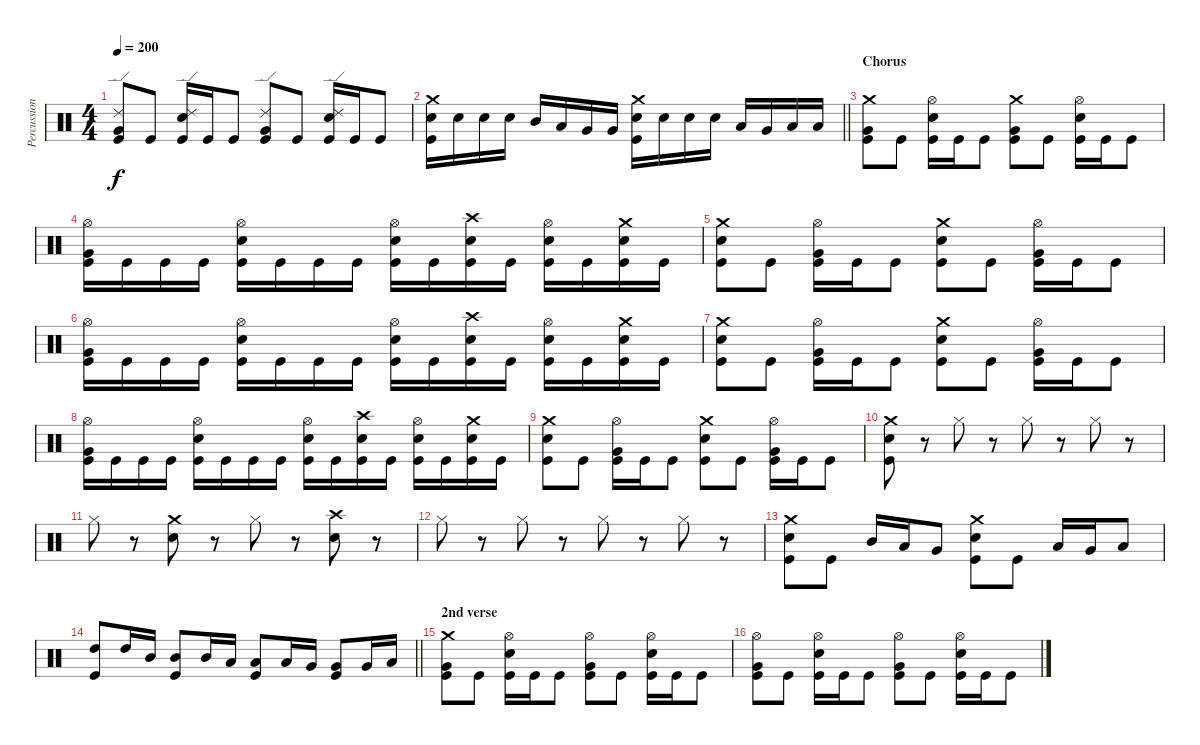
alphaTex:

\track ("Percussion" "Percussion") {instrument percussion}
\staff {score}
\articulation defaults
\ts (4 4)
\tempo 200
\clef neutral
\ks c
("Kick (hit)" "Very Low Tom (hit)" "Ride (edge) 2").8{dy f} "Kick (hit)".8 ("Kick (hit)" "Snare (hit) 2" "Ride (edge) 2").16 "Kick (hit)".16 "Kick (hit)".8 ("Kick (hit)" "Very Low Tom (hit)" "Ride (edge) 2").8 "Kick (hit)".8 ("Kick (hit)" "Snare (hit) 2" "Ride (edge) 2").16 "Kick (hit)".16 "Kick (hit)".8 |
\barLineRight lightlight
("Snare (hit) 2" "Crash medium (hit)" "Kick (hit)").16 "Snare (hit) 2".16 "Snare (hit) 2".16 "Snare (hit) 2".16 "Mid Tom (hit)".16 "Low Tom (hit)".16 "Very Low Tom (hit)".16 "Very Low Tom (hit)".16 ("Snare (hit) 2" "Crash medium (hit)" "Kick (hit)").16 "Snare (hit) 2".16 "Snare (hit) 2".16 "Snare (hit) 2".16 "Low Tom (hit)".16 "Very Low Tom (hit)".16 "Low Floor Tom (hit)".16 "Low Floor Tom (hit)".16 |
\section ("" "Chorus")
("Kick (hit)" "Very Low Tom (hit)" "Crash medium (hit)").8 "Kick (hit)".8 ("Kick (hit)" "Snare (hit) 2" "Hi-Hat (open)").16 "Kick (hit)".16 "Kick (hit)".8 ("Kick (hit)" "Very Low Tom (hit)" "Crash medium (hit)").8 "Kick (hit)".8 ("Kick (hit)" "Snare (hit) 2" "Hi-Hat (open)").16 "Kick (hit)".16 "Kick (hit)".8 |
("Kick (hit)" "Very Low Tom (hit)" "Hi-Hat (open)").16 "Kick (hit)".16 "Kick (hit)".16 "Kick (hit)".16 ("Kick (hit)" "Snare (hit) 2" "Hi-Hat (open)").16 "Kick (hit)".16 "Kick (hit)".16 "Kick (hit)".16 ("Kick (hit)" "Snare (hit) 2" "Hi-Hat (open)").16 "Kick (hit)".16 ("Kick (hit)" "Snare (hit) 2" "Crash high (hit)").16 "Kick (hit)".16 ("Kick (hit)" "Snare (hit) 2" "Hi-Hat (open)").16 "Kick (hit)".16 ("Kick (hit)" "Snare (hit) 2" "Crash medium (hit)").16 "Kick (hit)".16 |
("Kick (hit)" "Snare (hit) 2" "Crash medium (hit)").8 "Kick (hit)".8 ("Kick (hit)" "Very Low Tom (hit)" "Hi-Hat (open)").16 "Kick (hit)".16 "Kick (hit)".8 ("Kick (hit)" "Snare (hit) 2" "Crash medium (hit)").8 "Kick (hit)".8 ("Kick (hit)" "Very Low Tom (hit)" "Hi-Hat (open)").16 "Kick (hit)".16 "Kick (hit)".8 |
("Kick (hit)" "Very Low Tom (hit)" "Hi-Hat (open)").16 "Kick (hit)".16 "Kick (hit)".16 "Kick (hit)".16 ("Kick (hit)" "Snare (hit) 2" "Hi-Hat (open)").16 "Kick (hit)".16 "Kick (hit)".16 "Kick (hit)".16 ("Kick (hit)" "Snare (hit) 2" "Hi-Hat (open)").16 "Kick (hit)".16 ("Kick (hit)" "Snare (hit) 2" "Crash high (hit)").16 "Kick (hit)".16 ("Kick (hit)" "Snare (hit) 2" "Hi-Hat (open)").16 "Kick (hit)".16 ("Kick (hit)" "Snare (hit) 2" "Crash medium (hit)").16 "Kick (hit)".16 |
("Kick (hit)" "Snare (hit) 2" "Crash medium (hit)").8 "Kick (hit)".8 ("Kick (hit)" "Very Low Tom (hit)" "Hi-Hat (open)").16 "Kick (hit)".16 "Kick (hit)".8 ("Kick (hit)" "Snare (hit) 2" "Crash medium (hit)").8 "Kick (hit)".8 ("Kick (hit)" "Very Low Tom (hit)" "Hi-Hat (open)").16 "Kick (hit)".16 "Kick (hit)".8 |
("Kick (hit)" "Very Low Tom (hit)" "Hi-Hat (open)").16 "Kick (hit)".16 "Kick (hit)".16 "Kick (hit)".16 ("Kick (hit)" "Snare (hit) 2" "Hi-Hat (open)").16 "Kick (hit)".16 "Kick (hit)".16 "Kick (hit)".16 ("Kick (hit)" "Snare (hit) 2" "Hi-Hat (open)").16 "Kick (hit)".16 ("Kick (hit)" "Snare (hit) 2" "Crash high (hit)").16 "Kick (hit)".16 ("Kick (hit)" "Snare (hit) 2" "Hi-Hat (open)").16 "Kick (hit)".16 ("Kick (hit)" "Snare (hit) 2" "Crash medium (hit)").16 "Kick (hit)".16 |
("Kick (hit)" "Snare (hit) 2" "Crash medium (hit)").8 "Kick (hit)".8 ("Kick (hit)" "Very Low Tom (hit)" "Hi-Hat (open)").16 "Kick (hit)".16 "Kick (hit)".8 ("Kick (hit)" "Snare (hit) 2" "Crash medium (hit)").8 "Kick (hit)".8 ("Kick (hit)" "Very Low Tom (hit)" "Hi-Hat (open)").16 "Kick (hit)".16 "Kick (hit)".8 |
("Snare (hit) 2" "Crash medium (hit)" "Kick (hit)").8 r.8 "Hi-Hat (closed)".8 r.8 "Hi-Hat (closed)".8 r.8 "Hi-Hat (closed)".8 r.8 |
"Hi-Hat (closed)".8 r.8 ("Snare (hit) 2" "Crash medium (hit)").8 r.8 "Hi-Hat (closed)".8 r.8 ("Snare (hit) 2" "Crash high (hit)").8 r.8 |
"Hi-Hat (closed)".8 r.8 "Hi-Hat (closed)".8 r.8 "Hi-Hat (closed)".8 r.8 "Hi-Hat (closed)".8 r.8 |
("Snare (hit) 2" "Crash medium (hit)" "Kick (hit)").8 "Kick (hit)".8 "Mid Tom (hit)".16 "Low Tom (hit)".16 "Very Low Tom (hit)".8 ("Snare (hit) 2" "Crash medium (hit)" "Kick (hit)").8 "Kick (hit)".8 "Low Tom (hit)".16 "Very Low Tom (hit)".16 "Low Floor Tom (hit)".8 |
\barLineRight lightlight
("High Tom (hit)" "Kick (hit)").8{balance 6} "High Tom (hit)".16 "Mid Tom (hit)".16 ("Mid Tom (hit)" "Kick (hit)").8{balance 4} "Mid Tom (hit)".16 "Low Tom (hit)".16 ("Low Tom (hit)" "Kick (hit)").8{balance 10} "Low Tom (hit)".16 "Very Low Tom (hit)".16 ("Very Low Tom (hit)" "Kick (hit)").8{balance 12} "Very Low Tom (hit)".16 "Low Floor Tom (hit)".16 |
\section ("" "2nd verse")
("Kick (hit)" "Very Low Tom (hit)" "Crash medium (hit)").8{balance 8} "Kick (hit)".8 ("Kick (hit)" "Snare (hit) 2" "Hi-Hat (open)").16 "Kick (hit)".16 "Kick (hit)".8 ("Kick (hit)" "Very Low Tom (hit)" "Hi-Hat (open)").8 "Kick (hit)".8 ("Kick (hit)" "Snare (hit) 2" "Hi-Hat (open)").16 "Kick (hit)".16 "Kick (hit)".8 |
("Kick (hit)" "Very Low Tom (hit)" "Hi-Hat (open)").8 "Kick (hit)".8 ("Kick (hit)" "Snare (hit) 2" "Hi-Hat (open)").16 "Kick (hit)".16 "Kick (hit)".8 ("Kick (hit)" "Very Low Tom (hit)" "Hi-Hat (open)").8 "Kick (hit)".8 ("Kick (hit)" "Snare (hit) 2" "Hi-Hat (open)").16 "Kick (hit)".16 "Kick (hit)".8
